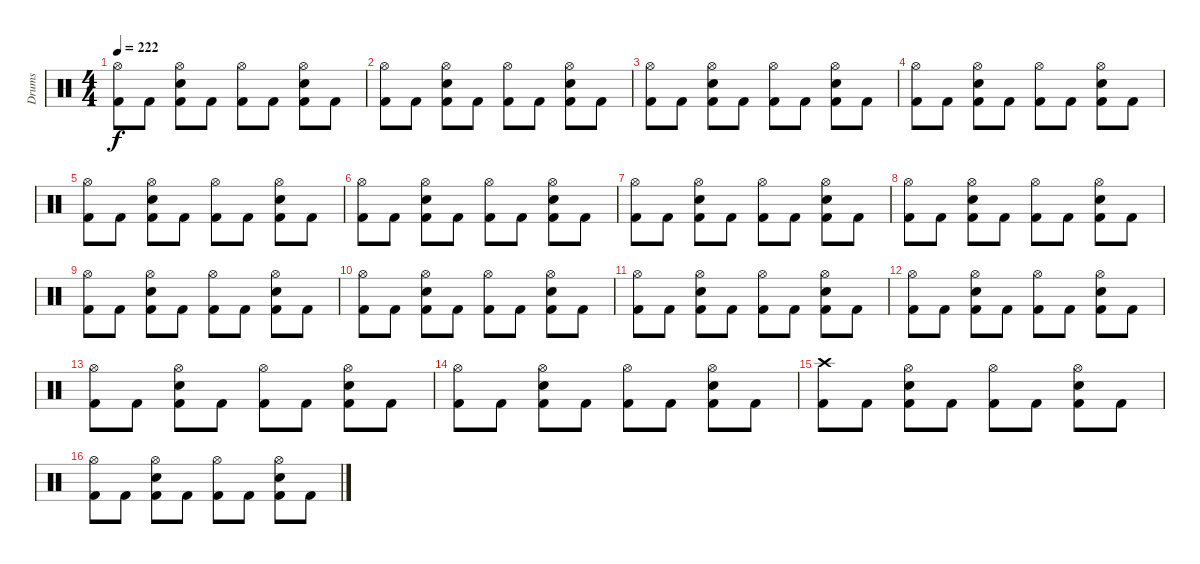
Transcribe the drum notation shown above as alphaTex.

\track ("Drums" "Drums") {instrument percussion}
\staff {score}
\articulation defaults
\ts (4 4)
\tempo 222
\clef neutral
\ks c
("Hi-Hat (open)" "Kick (hit) 2").8{dy f} "Kick (hit) 2".8 ("Hi-Hat (open)" "Electric Snare (hit)" "Kick (hit) 2").8 "Kick (hit) 2".8 ("Hi-Hat (open)" "Kick (hit) 2").8 "Kick (hit) 2".8 ("Hi-Hat (open)" "Electric Snare (hit)" "Kick (hit) 2").8 "Kick (hit) 2".8 |
("Hi-Hat (open)" "Kick (hit) 2").8 "Kick (hit) 2".8 ("Hi-Hat (open)" "Electric Snare (hit)" "Kick (hit) 2").8 "Kick (hit) 2".8 ("Hi-Hat (open)" "Kick (hit) 2").8 "Kick (hit) 2".8 ("Hi-Hat (open)" "Electric Snare (hit)" "Kick (hit) 2").8 "Kick (hit) 2".8 |
("Hi-Hat (open)" "Kick (hit) 2").8 "Kick (hit) 2".8 ("Hi-Hat (open)" "Electric Snare (hit)" "Kick (hit) 2").8 "Kick (hit) 2".8 ("Hi-Hat (open)" "Kick (hit) 2").8 "Kick (hit) 2".8 ("Hi-Hat (open)" "Electric Snare (hit)" "Kick (hit) 2").8 "Kick (hit) 2".8 |
("Hi-Hat (open)" "Kick (hit) 2").8 "Kick (hit) 2".8 ("Hi-Hat (open)" "Electric Snare (hit)" "Kick (hit) 2").8 "Kick (hit) 2".8 ("Hi-Hat (open)" "Kick (hit) 2").8 "Kick (hit) 2".8 ("Hi-Hat (open)" "Electric Snare (hit)" "Kick (hit) 2").8 "Kick (hit) 2".8 |
("Hi-Hat (open)" "Kick (hit) 2").8 "Kick (hit) 2".8 ("Hi-Hat (open)" "Electric Snare (hit)" "Kick (hit) 2").8 "Kick (hit) 2".8 ("Hi-Hat (open)" "Kick (hit) 2").8 "Kick (hit) 2".8 ("Hi-Hat (open)" "Electric Snare (hit)" "Kick (hit) 2").8 "Kick (hit) 2".8 |
("Hi-Hat (open)" "Kick (hit) 2").8 "Kick (hit) 2".8 ("Hi-Hat (open)" "Electric Snare (hit)" "Kick (hit) 2").8 "Kick (hit) 2".8 ("Hi-Hat (open)" "Kick (hit) 2").8 "Kick (hit) 2".8 ("Hi-Hat (open)" "Electric Snare (hit)" "Kick (hit) 2").8 "Kick (hit) 2".8 |
("Hi-Hat (open)" "Kick (hit) 2").8 "Kick (hit) 2".8 ("Hi-Hat (open)" "Electric Snare (hit)" "Kick (hit) 2").8 "Kick (hit) 2".8 ("Hi-Hat (open)" "Kick (hit) 2").8 "Kick (hit) 2".8 ("Hi-Hat (open)" "Electric Snare (hit)" "Kick (hit) 2").8 "Kick (hit) 2".8 |
("Hi-Hat (open)" "Kick (hit) 2").8 "Kick (hit) 2".8 ("Hi-Hat (open)" "Electric Snare (hit)" "Kick (hit) 2").8 "Kick (hit) 2".8 ("Hi-Hat (open)" "Kick (hit) 2").8 "Kick (hit) 2".8 ("Hi-Hat (open)" "Electric Snare (hit)" "Kick (hit) 2").8 "Kick (hit) 2".8 |
("Hi-Hat (open)" "Kick (hit) 2").8 "Kick (hit) 2".8 ("Hi-Hat (open)" "Electric Snare (hit)" "Kick (hit) 2").8 "Kick (hit) 2".8 ("Hi-Hat (open)" "Kick (hit) 2").8 "Kick (hit) 2".8 ("Hi-Hat (open)" "Electric Snare (hit)" "Kick (hit) 2").8 "Kick (hit) 2".8 |
("Hi-Hat (open)" "Kick (hit) 2").8 "Kick (hit) 2".8 ("Hi-Hat (open)" "Electric Snare (hit)" "Kick (hit) 2").8 "Kick (hit) 2".8 ("Hi-Hat (open)" "Kick (hit) 2").8 "Kick (hit) 2".8 ("Hi-Hat (open)" "Electric Snare (hit)" "Kick (hit) 2").8 "Kick (hit) 2".8 |
("Hi-Hat (open)" "Kick (hit) 2").8 "Kick (hit) 2".8 ("Hi-Hat (open)" "Electric Snare (hit)" "Kick (hit) 2").8 "Kick (hit) 2".8 ("Hi-Hat (open)" "Kick (hit) 2").8 "Kick (hit) 2".8 ("Hi-Hat (open)" "Electric Snare (hit)" "Kick (hit) 2").8 "Kick (hit) 2".8 |
("Hi-Hat (open)" "Kick (hit) 2").8 "Kick (hit) 2".8 ("Hi-Hat (open)" "Electric Snare (hit)" "Kick (hit) 2").8 "Kick (hit) 2".8 ("Hi-Hat (open)" "Kick (hit) 2").8 "Kick (hit) 2".8 ("Hi-Hat (open)" "Electric Snare (hit)" "Kick (hit) 2").8 "Kick (hit) 2".8 |
("Hi-Hat (open)" "Kick (hit) 2").8 "Kick (hit) 2".8 ("Hi-Hat (open)" "Electric Snare (hit)" "Kick (hit) 2").8 "Kick (hit) 2".8 ("Hi-Hat (open)" "Kick (hit) 2").8 "Kick (hit) 2".8 ("Hi-Hat (open)" "Electric Snare (hit)" "Kick (hit) 2").8 "Kick (hit) 2".8 |
("Hi-Hat (open)" "Kick (hit) 2").8 "Kick (hit) 2".8 ("Hi-Hat (open)" "Electric Snare (hit)" "Kick (hit) 2").8 "Kick (hit) 2".8 ("Hi-Hat (open)" "Kick (hit) 2").8 "Kick (hit) 2".8 ("Hi-Hat (open)" "Electric Snare (hit)" "Kick (hit) 2").8 "Kick (hit) 2".8 |
("Crash high (hit)" "Kick (hit) 2").8 "Kick (hit) 2".8 ("Hi-Hat (open)" "Electric Snare (hit)" "Kick (hit) 2").8 "Kick (hit) 2".8 ("Hi-Hat (open)" "Kick (hit) 2").8 "Kick (hit) 2".8 ("Hi-Hat (open)" "Electric Snare (hit)" "Kick (hit) 2").8 "Kick (hit) 2".8 |
("Hi-Hat (open)" "Kick (hit) 2").8 "Kick (hit) 2".8 ("Hi-Hat (open)" "Electric Snare (hit)" "Kick (hit) 2").8 "Kick (hit) 2".8 ("Hi-Hat (open)" "Kick (hit) 2").8 "Kick (hit) 2".8 ("Hi-Hat (open)" "Electric Snare (hit)" "Kick (hit) 2").8 "Kick (hit) 2".8
